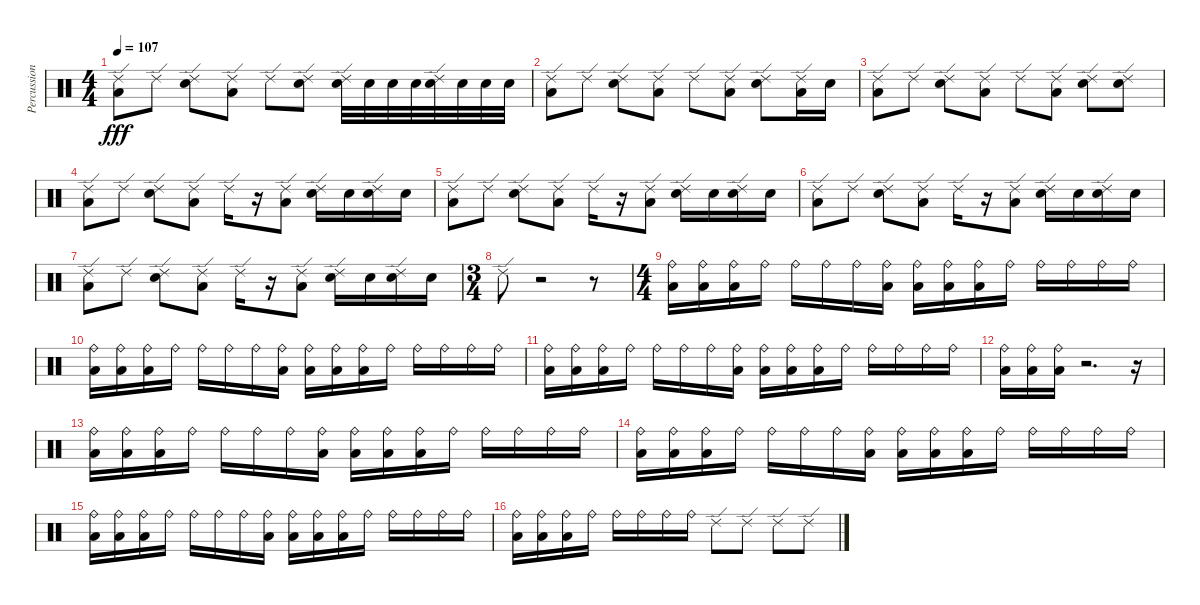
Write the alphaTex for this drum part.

\track ("Percussions" "Percussion") {instrument percussion}
\staff {score}
\articulation defaults
\ts (4 4)
\tempo 107
\clef neutral
\ks c
("Ride (edge) 2" "Low Floor Tom (hit)").8{dy fff} "Ride (edge) 2".8 ("Ride (edge) 2" "Electric Snare (hit)").8 ("Ride (edge) 2" "Low Floor Tom (hit)").8 "Ride (edge) 2".8 ("Ride (edge) 2" "Electric Snare (hit)").8 ("Electric Snare (hit)" "Ride (edge) 2").32 "Electric Snare (hit)".32 "Electric Snare (hit)".32 "Electric Snare (hit)".32 ("Electric Snare (hit)" "Ride (edge) 2").32 "Electric Snare (hit)".32 "Electric Snare (hit)".32 "Electric Snare (hit)".32 |
("Low Floor Tom (hit)" "Ride (edge) 2").8 "Ride (edge) 2".8 ("Electric Snare (hit)" "Ride (edge) 2").8 ("Low Floor Tom (hit)" "Ride (edge) 2").8 "Ride (edge) 2".8 ("Low Floor Tom (hit)" "Ride (edge) 2").8 ("Electric Snare (hit)" "Ride (edge) 2").8 ("Low Floor Tom (hit)" "Ride (edge) 2").16 "Electric Snare (hit)".16 |
("Low Floor Tom (hit)" "Ride (edge) 2").8 "Ride (edge) 2".8 ("Electric Snare (hit)" "Ride (edge) 2").8 ("Low Floor Tom (hit)" "Ride (edge) 2").8 "Ride (edge) 2".8 ("Low Floor Tom (hit)" "Ride (edge) 2").8 ("Electric Snare (hit)" "Ride (edge) 2").8 ("Electric Snare (hit)" "Ride (edge) 2").8 |
("Low Floor Tom (hit)" "Ride (edge) 2").8 "Ride (edge) 2".8 ("Electric Snare (hit)" "Ride (edge) 2").8 ("Low Floor Tom (hit)" "Ride (edge) 2").8 "Ride (edge) 2".16 r.16 ("Low Floor Tom (hit)" "Ride (edge) 2").8 ("Electric Snare (hit)" "Ride (edge) 2").16 "Electric Snare (hit)".16 ("Electric Snare (hit)" "Ride (edge) 2").16 "Electric Snare (hit)".16 |
("Low Floor Tom (hit)" "Ride (edge) 2").8 "Ride (edge) 2".8 ("Electric Snare (hit)" "Ride (edge) 2").8 ("Low Floor Tom (hit)" "Ride (edge) 2").8 "Ride (edge) 2".16 r.16 ("Low Floor Tom (hit)" "Ride (edge) 2").8 ("Electric Snare (hit)" "Ride (edge) 2").16 "Electric Snare (hit)".16 ("Electric Snare (hit)" "Ride (edge) 2").16 "Electric Snare (hit)".16 |
("Low Floor Tom (hit)" "Ride (edge) 2").8 "Ride (edge) 2".8 ("Electric Snare (hit)" "Ride (edge) 2").8 ("Low Floor Tom (hit)" "Ride (edge) 2").8 "Ride (edge) 2".16 r.16 ("Low Floor Tom (hit)" "Ride (edge) 2").8 ("Electric Snare (hit)" "Ride (edge) 2").16 "Electric Snare (hit)".16 ("Electric Snare (hit)" "Ride (edge) 2").16 "Electric Snare (hit)".16 |
("Low Floor Tom (hit)" "Ride (edge) 2").8 "Ride (edge) 2".8 ("Electric Snare (hit)" "Ride (edge) 2").8 ("Low Floor Tom (hit)" "Ride (edge) 2").8 "Ride (edge) 2".16 r.16 ("Low Floor Tom (hit)" "Ride (edge) 2").8 ("Electric Snare (hit)" "Ride (edge) 2").16 "Electric Snare (hit)".16 ("Electric Snare (hit)" "Ride (edge) 2").16 "Electric Snare (hit)".16 |
\ts (3 4)
"Ride (edge) 2".8 r.2 r.8 |
\ts (4 4)
("Low Floor Tom (hit)" "Ride (bell)").16 ("Low Floor Tom (hit)" "Ride (bell)").16 ("Low Floor Tom (hit)" "Ride (bell)").16 "Ride (bell)".16 "Ride (bell)".16 "Ride (bell)".16 "Ride (bell)".16 ("Low Floor Tom (hit)" "Ride (bell)").16 ("Low Floor Tom (hit)" "Ride (bell)").16 ("Low Floor Tom (hit)" "Ride (bell)").16 ("Low Floor Tom (hit)" "Ride (bell)").16 "Ride (bell)".16 "Ride (bell)".16 "Ride (bell)".16 "Ride (bell)".16 "Ride (bell)".16 |
("Low Floor Tom (hit)" "Ride (bell)").16 ("Low Floor Tom (hit)" "Ride (bell)").16 ("Low Floor Tom (hit)" "Ride (bell)").16 "Ride (bell)".16 "Ride (bell)".16 "Ride (bell)".16 "Ride (bell)".16 ("Low Floor Tom (hit)" "Ride (bell)").16 ("Low Floor Tom (hit)" "Ride (bell)").16 ("Low Floor Tom (hit)" "Ride (bell)").16 ("Low Floor Tom (hit)" "Ride (bell)").16 "Ride (bell)".16 "Ride (bell)".16 "Ride (bell)".16 "Ride (bell)".16 "Ride (bell)".16 |
("Low Floor Tom (hit)" "Ride (bell)").16 ("Low Floor Tom (hit)" "Ride (bell)").16 ("Low Floor Tom (hit)" "Ride (bell)").16 "Ride (bell)".16 "Ride (bell)".16 "Ride (bell)".16 "Ride (bell)".16 ("Low Floor Tom (hit)" "Ride (bell)").16 ("Low Floor Tom (hit)" "Ride (bell)").16 ("Low Floor Tom (hit)" "Ride (bell)").16 ("Low Floor Tom (hit)" "Ride (bell)").16 "Ride (bell)".16 "Ride (bell)".16 "Ride (bell)".16 "Ride (bell)".16 "Ride (bell)".16 |
("Low Floor Tom (hit)" "Ride (bell)").16 ("Low Floor Tom (hit)" "Ride (bell)").16 ("Low Floor Tom (hit)" "Ride (bell)").16 r.2{d} r.16 |
("Low Floor Tom (hit)" "Ride (bell)").16 ("Low Floor Tom (hit)" "Ride (bell)").16 ("Low Floor Tom (hit)" "Ride (bell)").16 "Ride (bell)".16 "Ride (bell)".16 "Ride (bell)".16 "Ride (bell)".16 ("Low Floor Tom (hit)" "Ride (bell)").16 ("Low Floor Tom (hit)" "Ride (bell)").16 ("Low Floor Tom (hit)" "Ride (bell)").16 ("Low Floor Tom (hit)" "Ride (bell)").16 "Ride (bell)".16 "Ride (bell)".16 "Ride (bell)".16 "Ride (bell)".16 "Ride (bell)".16 |
("Low Floor Tom (hit)" "Ride (bell)").16 ("Low Floor Tom (hit)" "Ride (bell)").16 ("Low Floor Tom (hit)" "Ride (bell)").16 "Ride (bell)".16 "Ride (bell)".16 "Ride (bell)".16 "Ride (bell)".16 ("Low Floor Tom (hit)" "Ride (bell)").16 ("Low Floor Tom (hit)" "Ride (bell)").16 ("Low Floor Tom (hit)" "Ride (bell)").16 ("Low Floor Tom (hit)" "Ride (bell)").16 "Ride (bell)".16 "Ride (bell)".16 "Ride (bell)".16 "Ride (bell)".16 "Ride (bell)".16 |
("Low Floor Tom (hit)" "Ride (bell)").16 ("Low Floor Tom (hit)" "Ride (bell)").16 ("Low Floor Tom (hit)" "Ride (bell)").16 "Ride (bell)".16 "Ride (bell)".16 "Ride (bell)".16 "Ride (bell)".16 ("Low Floor Tom (hit)" "Ride (bell)").16 ("Low Floor Tom (hit)" "Ride (bell)").16 ("Low Floor Tom (hit)" "Ride (bell)").16 ("Low Floor Tom (hit)" "Ride (bell)").16 "Ride (bell)".16 "Ride (bell)".16 "Ride (bell)".16 "Ride (bell)".16 "Ride (bell)".16 |
("Low Floor Tom (hit)" "Ride (bell)").16 ("Low Floor Tom (hit)" "Ride (bell)").16 ("Low Floor Tom (hit)" "Ride (bell)").16 "Ride (bell)".16 "Ride (bell)".16 "Ride (bell)".16 "Ride (bell)".16 "Ride (bell)".16 "Ride (edge) 2".8 "Ride (edge) 2".8 "Ride (edge) 2".8 "Ride (edge) 2".8
